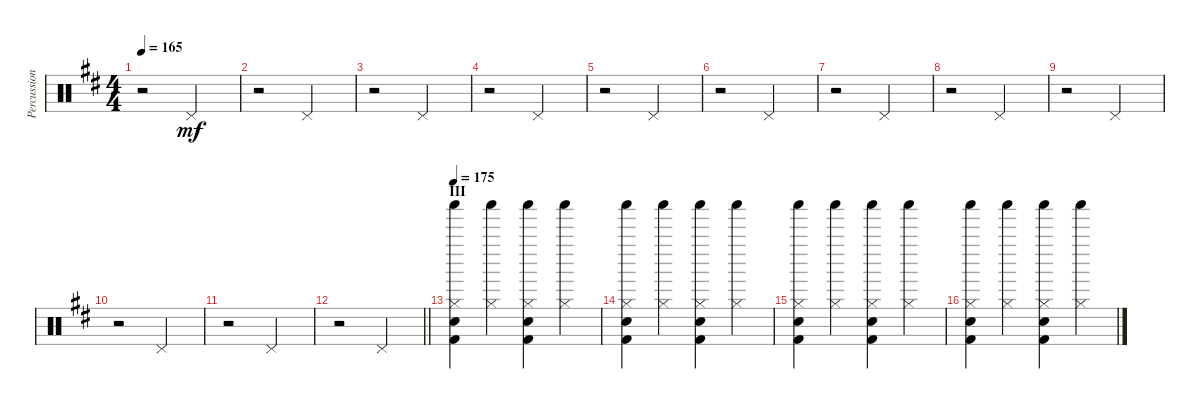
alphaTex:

\track ("Percussion [Nick Mason]" "Percussion") {instrument percussion}
\staff {score}
\articulation defaults
\ts (4 4)
\tempo 165
\clef neutral
\ks d
r.2{dy mf} "Pedal Hi-Hat (hit)".2 |
r.2 "Pedal Hi-Hat (hit)".2 |
r.2 "Pedal Hi-Hat (hit)".2 |
r.2 "Pedal Hi-Hat (hit)".2 |
r.2 "Pedal Hi-Hat (hit)".2 |
r.2 "Pedal Hi-Hat (hit)".2 |
r.2 "Pedal Hi-Hat (hit)".2 |
r.2 "Pedal Hi-Hat (hit)".2 |
r.2 "Pedal Hi-Hat (hit)".2 |
r.2 "Pedal Hi-Hat (hit)".2 |
r.2 "Pedal Hi-Hat (hit)".2 |
\barLineRight lightlight
r.2 "Pedal Hi-Hat (hit)".2 |
\section ("" "III")
\tempo 175
("Shaker (hit)" "Hi-Hat (closed)" "Snare (hit) 2" "Kick (hit) 2").4 ("Shaker (hit)" "Hi-Hat (closed)").4 ("Shaker (hit)" "Hi-Hat (closed)" "Snare (hit) 2" "Kick (hit) 2").4 ("Shaker (hit)" "Hi-Hat (closed)").4 |
("Shaker (hit)" "Hi-Hat (closed)" "Snare (hit) 2" "Kick (hit) 2").4 ("Shaker (hit)" "Hi-Hat (closed)").4 ("Shaker (hit)" "Hi-Hat (closed)" "Snare (hit) 2" "Kick (hit) 2").4 ("Shaker (hit)" "Hi-Hat (closed)").4 |
("Shaker (hit)" "Hi-Hat (closed)" "Snare (hit) 2" "Kick (hit) 2").4 ("Shaker (hit)" "Hi-Hat (closed)").4 ("Shaker (hit)" "Hi-Hat (closed)" "Snare (hit) 2" "Kick (hit) 2").4 ("Shaker (hit)" "Hi-Hat (closed)").4 |
("Shaker (hit)" "Hi-Hat (closed)" "Snare (hit) 2" "Kick (hit) 2").4 ("Shaker (hit)" "Hi-Hat (closed)").4 ("Shaker (hit)" "Hi-Hat (closed)" "Snare (hit) 2" "Kick (hit) 2").4 ("Shaker (hit)" "Hi-Hat (closed)").4
